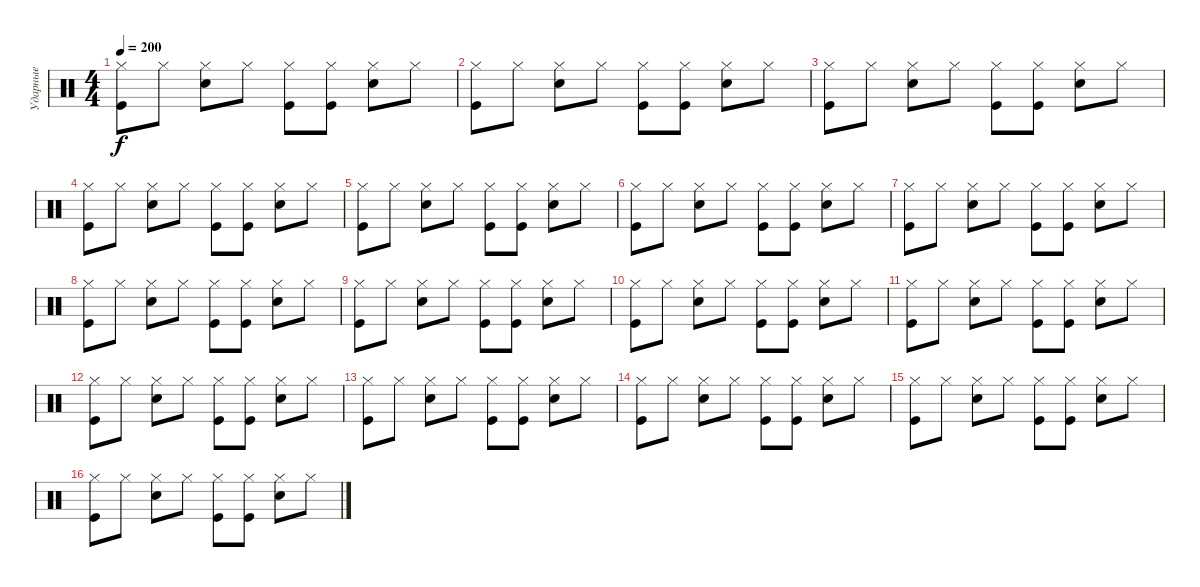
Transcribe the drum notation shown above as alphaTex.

\track ("Ударные" "Ударные") {instrument percussion}
\staff {score}
\articulation defaults
\ts (4 4)
\tempo 200
\clef neutral
\ks c
("Kick (hit)" "Hi-Hat (closed)").8{dy f} "Hi-Hat (closed)".8 ("Electric Snare (hit)" "Hi-Hat (closed)").8 "Hi-Hat (closed)".8 ("Kick (hit)" "Hi-Hat (closed)").8 ("Kick (hit)" "Hi-Hat (closed)").8 ("Electric Snare (hit)" "Hi-Hat (closed)").8 "Hi-Hat (closed)".8 |
("Kick (hit)" "Hi-Hat (closed)").8 "Hi-Hat (closed)".8 ("Electric Snare (hit)" "Hi-Hat (closed)").8 "Hi-Hat (closed)".8 ("Kick (hit)" "Hi-Hat (closed)").8 ("Kick (hit)" "Hi-Hat (closed)").8 ("Electric Snare (hit)" "Hi-Hat (closed)").8 "Hi-Hat (closed)".8 |
("Kick (hit)" "Hi-Hat (closed)").8 "Hi-Hat (closed)".8 ("Electric Snare (hit)" "Hi-Hat (closed)").8 "Hi-Hat (closed)".8 ("Kick (hit)" "Hi-Hat (closed)").8 ("Kick (hit)" "Hi-Hat (closed)").8 ("Electric Snare (hit)" "Hi-Hat (closed)").8 "Hi-Hat (closed)".8 |
("Kick (hit)" "Hi-Hat (closed)").8 "Hi-Hat (closed)".8 ("Electric Snare (hit)" "Hi-Hat (closed)").8 "Hi-Hat (closed)".8 ("Kick (hit)" "Hi-Hat (closed)").8 ("Kick (hit)" "Hi-Hat (closed)").8 ("Electric Snare (hit)" "Hi-Hat (closed)").8 "Hi-Hat (closed)".8 |
("Kick (hit)" "Hi-Hat (closed)").8 "Hi-Hat (closed)".8 ("Electric Snare (hit)" "Hi-Hat (closed)").8 "Hi-Hat (closed)".8 ("Kick (hit)" "Hi-Hat (closed)").8 ("Kick (hit)" "Hi-Hat (closed)").8 ("Electric Snare (hit)" "Hi-Hat (closed)").8 "Hi-Hat (closed)".8 |
("Kick (hit)" "Hi-Hat (closed)").8 "Hi-Hat (closed)".8 ("Electric Snare (hit)" "Hi-Hat (closed)").8 "Hi-Hat (closed)".8 ("Kick (hit)" "Hi-Hat (closed)").8 ("Kick (hit)" "Hi-Hat (closed)").8 ("Electric Snare (hit)" "Hi-Hat (closed)").8 "Hi-Hat (closed)".8 |
("Kick (hit)" "Hi-Hat (closed)").8 "Hi-Hat (closed)".8 ("Electric Snare (hit)" "Hi-Hat (closed)").8 "Hi-Hat (closed)".8 ("Kick (hit)" "Hi-Hat (closed)").8 ("Kick (hit)" "Hi-Hat (closed)").8 ("Electric Snare (hit)" "Hi-Hat (closed)").8 "Hi-Hat (closed)".8 |
("Kick (hit)" "Hi-Hat (closed)").8 "Hi-Hat (closed)".8 ("Electric Snare (hit)" "Hi-Hat (closed)").8 "Hi-Hat (closed)".8 ("Kick (hit)" "Hi-Hat (closed)").8 ("Kick (hit)" "Hi-Hat (closed)").8 ("Electric Snare (hit)" "Hi-Hat (closed)").8 "Hi-Hat (closed)".8 |
("Kick (hit)" "Hi-Hat (closed)").8 "Hi-Hat (closed)".8 ("Electric Snare (hit)" "Hi-Hat (closed)").8 "Hi-Hat (closed)".8 ("Kick (hit)" "Hi-Hat (closed)").8 ("Kick (hit)" "Hi-Hat (closed)").8 ("Electric Snare (hit)" "Hi-Hat (closed)").8 "Hi-Hat (closed)".8 |
("Kick (hit)" "Hi-Hat (closed)").8 "Hi-Hat (closed)".8 ("Electric Snare (hit)" "Hi-Hat (closed)").8 "Hi-Hat (closed)".8 ("Kick (hit)" "Hi-Hat (closed)").8 ("Kick (hit)" "Hi-Hat (closed)").8 ("Electric Snare (hit)" "Hi-Hat (closed)").8 "Hi-Hat (closed)".8 |
("Kick (hit)" "Hi-Hat (closed)").8 "Hi-Hat (closed)".8 ("Electric Snare (hit)" "Hi-Hat (closed)").8 "Hi-Hat (closed)".8 ("Kick (hit)" "Hi-Hat (closed)").8 ("Kick (hit)" "Hi-Hat (closed)").8 ("Electric Snare (hit)" "Hi-Hat (closed)").8 "Hi-Hat (closed)".8 |
("Kick (hit)" "Hi-Hat (closed)").8 "Hi-Hat (closed)".8 ("Electric Snare (hit)" "Hi-Hat (closed)").8 "Hi-Hat (closed)".8 ("Kick (hit)" "Hi-Hat (closed)").8 ("Kick (hit)" "Hi-Hat (closed)").8 ("Electric Snare (hit)" "Hi-Hat (closed)").8 "Hi-Hat (closed)".8 |
("Kick (hit)" "Hi-Hat (closed)").8 "Hi-Hat (closed)".8 ("Electric Snare (hit)" "Hi-Hat (closed)").8 "Hi-Hat (closed)".8 ("Kick (hit)" "Hi-Hat (closed)").8 ("Kick (hit)" "Hi-Hat (closed)").8 ("Electric Snare (hit)" "Hi-Hat (closed)").8 "Hi-Hat (closed)".8 |
("Kick (hit)" "Hi-Hat (closed)").8 "Hi-Hat (closed)".8 ("Electric Snare (hit)" "Hi-Hat (closed)").8 "Hi-Hat (closed)".8 ("Kick (hit)" "Hi-Hat (closed)").8 ("Kick (hit)" "Hi-Hat (closed)").8 ("Electric Snare (hit)" "Hi-Hat (closed)").8 "Hi-Hat (closed)".8 |
("Kick (hit)" "Hi-Hat (closed)").8 "Hi-Hat (closed)".8 ("Electric Snare (hit)" "Hi-Hat (closed)").8 "Hi-Hat (closed)".8 ("Kick (hit)" "Hi-Hat (closed)").8 ("Kick (hit)" "Hi-Hat (closed)").8 ("Electric Snare (hit)" "Hi-Hat (closed)").8 "Hi-Hat (closed)".8 |
("Kick (hit)" "Hi-Hat (closed)").8 "Hi-Hat (closed)".8 ("Electric Snare (hit)" "Hi-Hat (closed)").8 "Hi-Hat (closed)".8 ("Kick (hit)" "Hi-Hat (closed)").8 ("Kick (hit)" "Hi-Hat (closed)").8 ("Electric Snare (hit)" "Hi-Hat (closed)").8 "Hi-Hat (closed)".8
